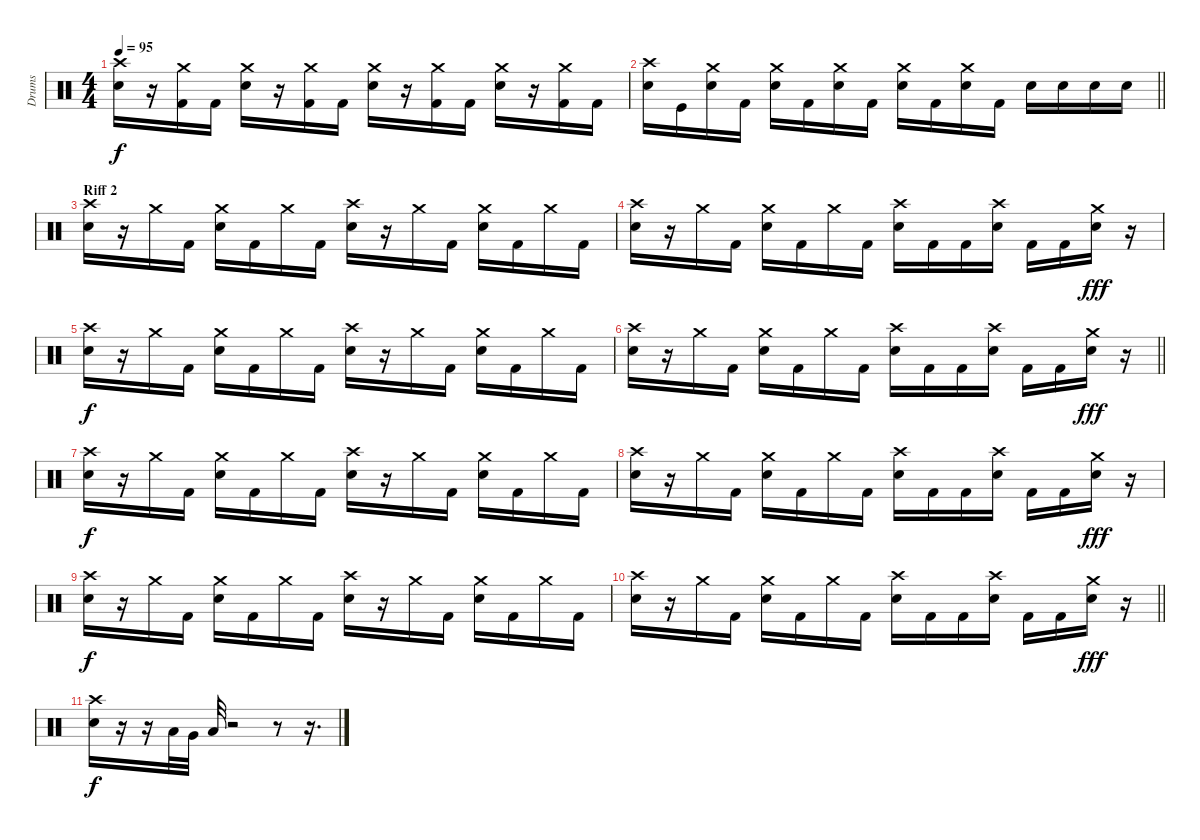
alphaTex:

\track ("Drums" "Drums") {instrument percussion}
\staff {score}
\articulation defaults
\ts (4 4)
\tempo 95
\clef neutral
\ks c
("Crash high (hit)" "Electric Snare (hit)").16{dy f} r.16 ("Crash medium (hit)" "Kick (hit) 2").16 "Kick (hit) 2".16 ("Crash medium (hit)" "Electric Snare (hit)").16 r.16 ("Crash medium (hit)" "Kick (hit) 2").16 "Kick (hit) 2".16 ("Crash medium (hit)" "Electric Snare (hit)").16 r.16 ("Crash medium (hit)" "Kick (hit) 2").16 "Kick (hit) 2".16 ("Crash medium (hit)" "Electric Snare (hit)").16 r.16 ("Crash medium (hit)" "Kick (hit) 2").16 "Kick (hit) 2".16 |
\barLineRight lightlight
("Crash high (hit)" "Electric Snare (hit)").16 "Kick (hit)".16 ("Crash medium (hit)" "Electric Snare (hit)").16 "Kick (hit) 2".16 ("Crash medium (hit)" "Electric Snare (hit)").16 "Kick (hit) 2".16 ("Crash medium (hit)" "Electric Snare (hit)").16 "Kick (hit) 2".16 ("Crash medium (hit)" "Electric Snare (hit)").16 "Kick (hit) 2".16 ("Crash medium (hit)" "Electric Snare (hit)").16 "Kick (hit) 2".16 "Electric Snare (hit)".16 "Electric Snare (hit)".16 "Electric Snare (hit)".16 "Electric Snare (hit)".16 |
\section ("" "Riff 2")
("Crash high (hit)" "Electric Snare (hit)").16 r.16 "Crash medium (hit)".16 "Kick (hit) 2".16 ("Crash medium (hit)" "Electric Snare (hit)").16 "Kick (hit) 2".16 "Crash medium (hit)".16 "Kick (hit) 2".16 ("Crash high (hit)" "Electric Snare (hit)").16 r.16 "Crash medium (hit)".16 "Kick (hit) 2".16 ("Crash medium (hit)" "Electric Snare (hit)").16 "Kick (hit) 2".16 "Crash medium (hit)".16 "Kick (hit) 2".16 |
("Crash high (hit)" "Electric Snare (hit)").16 r.16 "Crash medium (hit)".16 "Kick (hit) 2".16 ("Crash medium (hit)" "Electric Snare (hit)").16 "Kick (hit) 2".16 "Crash medium (hit)".16 "Kick (hit) 2".16 ("Crash high (hit)" "Electric Snare (hit)").16 "Kick (hit) 2".16 "Kick (hit) 2".16 ("Crash high (hit)" "Electric Snare (hit)").16 "Kick (hit) 2".16 "Kick (hit) 2".16 ("Crash medium (hit)" "Electric Snare (hit)").16{dy fff} r.16 |
("Crash high (hit)" "Electric Snare (hit)").16{dy f} r.16 "Crash medium (hit)".16 "Kick (hit) 2".16 ("Crash medium (hit)" "Electric Snare (hit)").16 "Kick (hit) 2".16 "Crash medium (hit)".16 "Kick (hit) 2".16 ("Crash high (hit)" "Electric Snare (hit)").16 r.16 "Crash medium (hit)".16 "Kick (hit) 2".16 ("Crash medium (hit)" "Electric Snare (hit)").16 "Kick (hit) 2".16 "Crash medium (hit)".16 "Kick (hit) 2".16 |
\barLineRight lightlight
("Crash high (hit)" "Electric Snare (hit)").16 r.16 "Crash medium (hit)".16 "Kick (hit) 2".16 ("Crash medium (hit)" "Electric Snare (hit)").16 "Kick (hit) 2".16 "Crash medium (hit)".16 "Kick (hit) 2".16 ("Crash high (hit)" "Electric Snare (hit)").16 "Kick (hit) 2".16 "Kick (hit) 2".16 ("Crash high (hit)" "Electric Snare (hit)").16 "Kick (hit) 2".16 "Kick (hit) 2".16 ("Crash medium (hit)" "Electric Snare (hit)").16{dy fff} r.16 |
("Crash high (hit)" "Electric Snare (hit)").16{dy f} r.16 "Crash medium (hit)".16 "Kick (hit) 2".16 ("Crash medium (hit)" "Electric Snare (hit)").16 "Kick (hit) 2".16 "Crash medium (hit)".16 "Kick (hit) 2".16 ("Crash high (hit)" "Electric Snare (hit)").16 r.16 "Crash medium (hit)".16 "Kick (hit) 2".16 ("Crash medium (hit)" "Electric Snare (hit)").16 "Kick (hit) 2".16 "Crash medium (hit)".16 "Kick (hit) 2".16 |
("Crash high (hit)" "Electric Snare (hit)").16 r.16 "Crash medium (hit)".16 "Kick (hit) 2".16 ("Crash medium (hit)" "Electric Snare (hit)").16 "Kick (hit) 2".16 "Crash medium (hit)".16 "Kick (hit) 2".16 ("Crash high (hit)" "Electric Snare (hit)").16 "Kick (hit) 2".16 "Kick (hit) 2".16 ("Crash high (hit)" "Electric Snare (hit)").16 "Kick (hit) 2".16 "Kick (hit) 2".16 ("Crash medium (hit)" "Electric Snare (hit)").16{dy fff} r.16 |
("Crash high (hit)" "Electric Snare (hit)").16{dy f} r.16 "Crash medium (hit)".16 "Kick (hit) 2".16 ("Crash medium (hit)" "Electric Snare (hit)").16 "Kick (hit) 2".16 "Crash medium (hit)".16 "Kick (hit) 2".16 ("Crash high (hit)" "Electric Snare (hit)").16 r.16 "Crash medium (hit)".16 "Kick (hit) 2".16 ("Crash medium (hit)" "Electric Snare (hit)").16 "Kick (hit) 2".16 "Crash medium (hit)".16 "Kick (hit) 2".16 |
\barLineRight lightlight
("Crash high (hit)" "Electric Snare (hit)").16 r.16 "Crash medium (hit)".16 "Kick (hit) 2".16 ("Crash medium (hit)" "Electric Snare (hit)").16 "Kick (hit) 2".16 "Crash medium (hit)".16 "Kick (hit) 2".16 ("Crash high (hit)" "Electric Snare (hit)").16 "Kick (hit) 2".16 "Kick (hit) 2".16 ("Crash high (hit)" "Electric Snare (hit)").16 "Kick (hit) 2".16 "Kick (hit) 2".16 ("Crash medium (hit)" "Electric Snare (hit)").16{dy fff} r.16 |
("Crash high (hit)" "Electric Snare (hit)").16{dy f} r.16 r.16 "Low Tom (hit)".32 "Very Low Tom (hit)".32 "Low Floor Tom (hit)".32 r.2 r.8 r.16{d}
